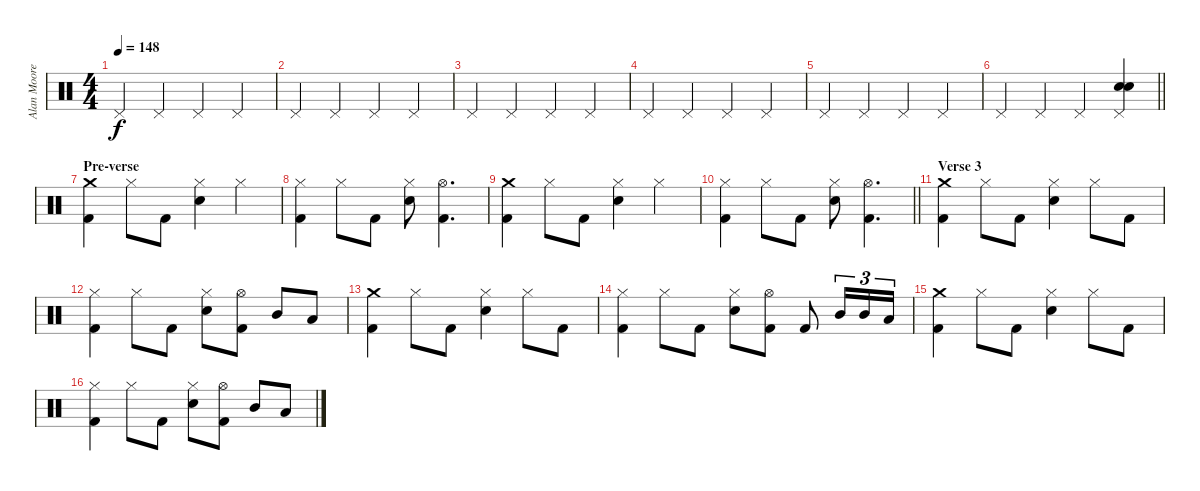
\track ("Alan Moore" "Alan Moore") {instrument percussion}
\staff {score}
\articulation defaults
\ts (4 4)
\tempo 148
\clef neutral
\ks c "Pedal Hi-Hat (hit)".4{dy f} "Pedal Hi-Hat (hit)".4 "Pedal Hi-Hat (hit)".4 "Pedal Hi-Hat (hit)".4
|
"Pedal Hi-Hat (hit)".4 "Pedal Hi-Hat (hit)".4 "Pedal Hi-Hat (hit)".4 "Pedal Hi-Hat (hit)".4 |
"Pedal Hi-Hat (hit)".4 "Pedal Hi-Hat (hit)".4 "Pedal Hi-Hat (hit)".4 "Pedal Hi-Hat (hit)".4 |
"Pedal Hi-Hat (hit)".4 "Pedal Hi-Hat (hit)".4 "Pedal Hi-Hat (hit)".4 "Pedal Hi-Hat (hit)".4 |
"Pedal Hi-Hat (hit)".4 "Pedal Hi-Hat (hit)".4 "Pedal Hi-Hat (hit)".4 "Pedal Hi-Hat (hit)".4 |
\barLineRight lightlight "Pedal Hi-Hat (hit)".4 "Pedal Hi-Hat (hit)".4 "Pedal Hi-Hat (hit)".4
("Snare (hit) 2" "Snare (hit) 2" "Pedal Hi-Hat (hit)").4 |
\section ("" "Pre-verse")
("Crash medium (hit)" "Kick (hit) 2").4 "Hi-Hat (closed)".8 "Kick (hit) 2".8 ("Hi-Hat (closed)" "Snare (hit) 2").4 "Hi-Hat (closed)".4 |
("Hi-Hat (closed)" "Kick (hit) 2").4 "Hi-Hat (closed)".8 "Kick (hit) 2".8 ("Hi-Hat (closed)" "Snare (hit) 2").8 ("Hi-Hat (open)" "Kick (hit) 2").4{d} |
("Crash medium (hit)" "Kick (hit) 2").4 "Hi-Hat (closed)".8 "Kick (hit) 2".8 ("Hi-Hat (closed)" "Snare (hit) 2").4 "Hi-Hat (closed)".4 |
\barLineRight lightlight
("Hi-Hat (closed)" "Kick (hit) 2").4 "Hi-Hat (closed)".8 "Kick (hit) 2".8 ("Hi-Hat (closed)" "Snare (hit) 2").8 ("Hi-Hat (open)" "Kick (hit) 2").4{d} |
\section ("" "Verse 3")
("Crash medium (hit)" "Kick (hit) 2").4 "Hi-Hat (closed)".8 "Kick (hit) 2".8 ("Hi-Hat (closed)" "Snare (hit) 2").4 "Hi-Hat (closed)".8 "Kick (hit) 2".8 |
("Hi-Hat (closed)" "Kick (hit) 2").4 "Hi-Hat (closed)".8 "Kick (hit) 2".8 ("Hi-Hat (closed)" "Snare (hit) 2").8 ("Hi-Hat (open)" "Kick (hit) 2").8 "Mid Tom (hit)".8 "Low Tom (hit)".8 |
("Crash medium (hit)" "Kick (hit) 2").4 "Hi-Hat (closed)".8 "Kick (hit) 2".8 ("Hi-Hat (closed)" "Snare (hit) 2").4 "Hi-Hat (closed)".8 "Kick (hit) 2".8 |
("Hi-Hat (closed)" "Kick (hit) 2").4 "Hi-Hat (closed)".8 "Kick (hit) 2".8 ("Hi-Hat (closed)" "Snare (hit) 2").8 ("Hi-Hat (open)" "Kick (hit) 2").8 "Kick (hit) 2".8 "Mid Tom (hit)".16{tu (3 2)} "Mid Tom (hit)".16{tu (3 2)} "Low Tom (hit)".16{tu (3 2)} |
("Crash medium (hit)" "Kick (hit) 2").4 "Hi-Hat (closed)".8 "Kick (hit) 2".8 ("Hi-Hat (closed)" "Snare (hit) 2").4 "Hi-Hat (closed)".8 "Kick (hit) 2".8 |
("Hi-Hat (closed)" "Kick (hit) 2").4 "Hi-Hat (closed)".8 "Kick (hit) 2".8 ("Hi-Hat (closed)" "Snare (hit) 2").8 ("Hi-Hat (open)" "Kick (hit) 2").8 "Mid Tom (hit)".8 "Low Tom (hit)".8
